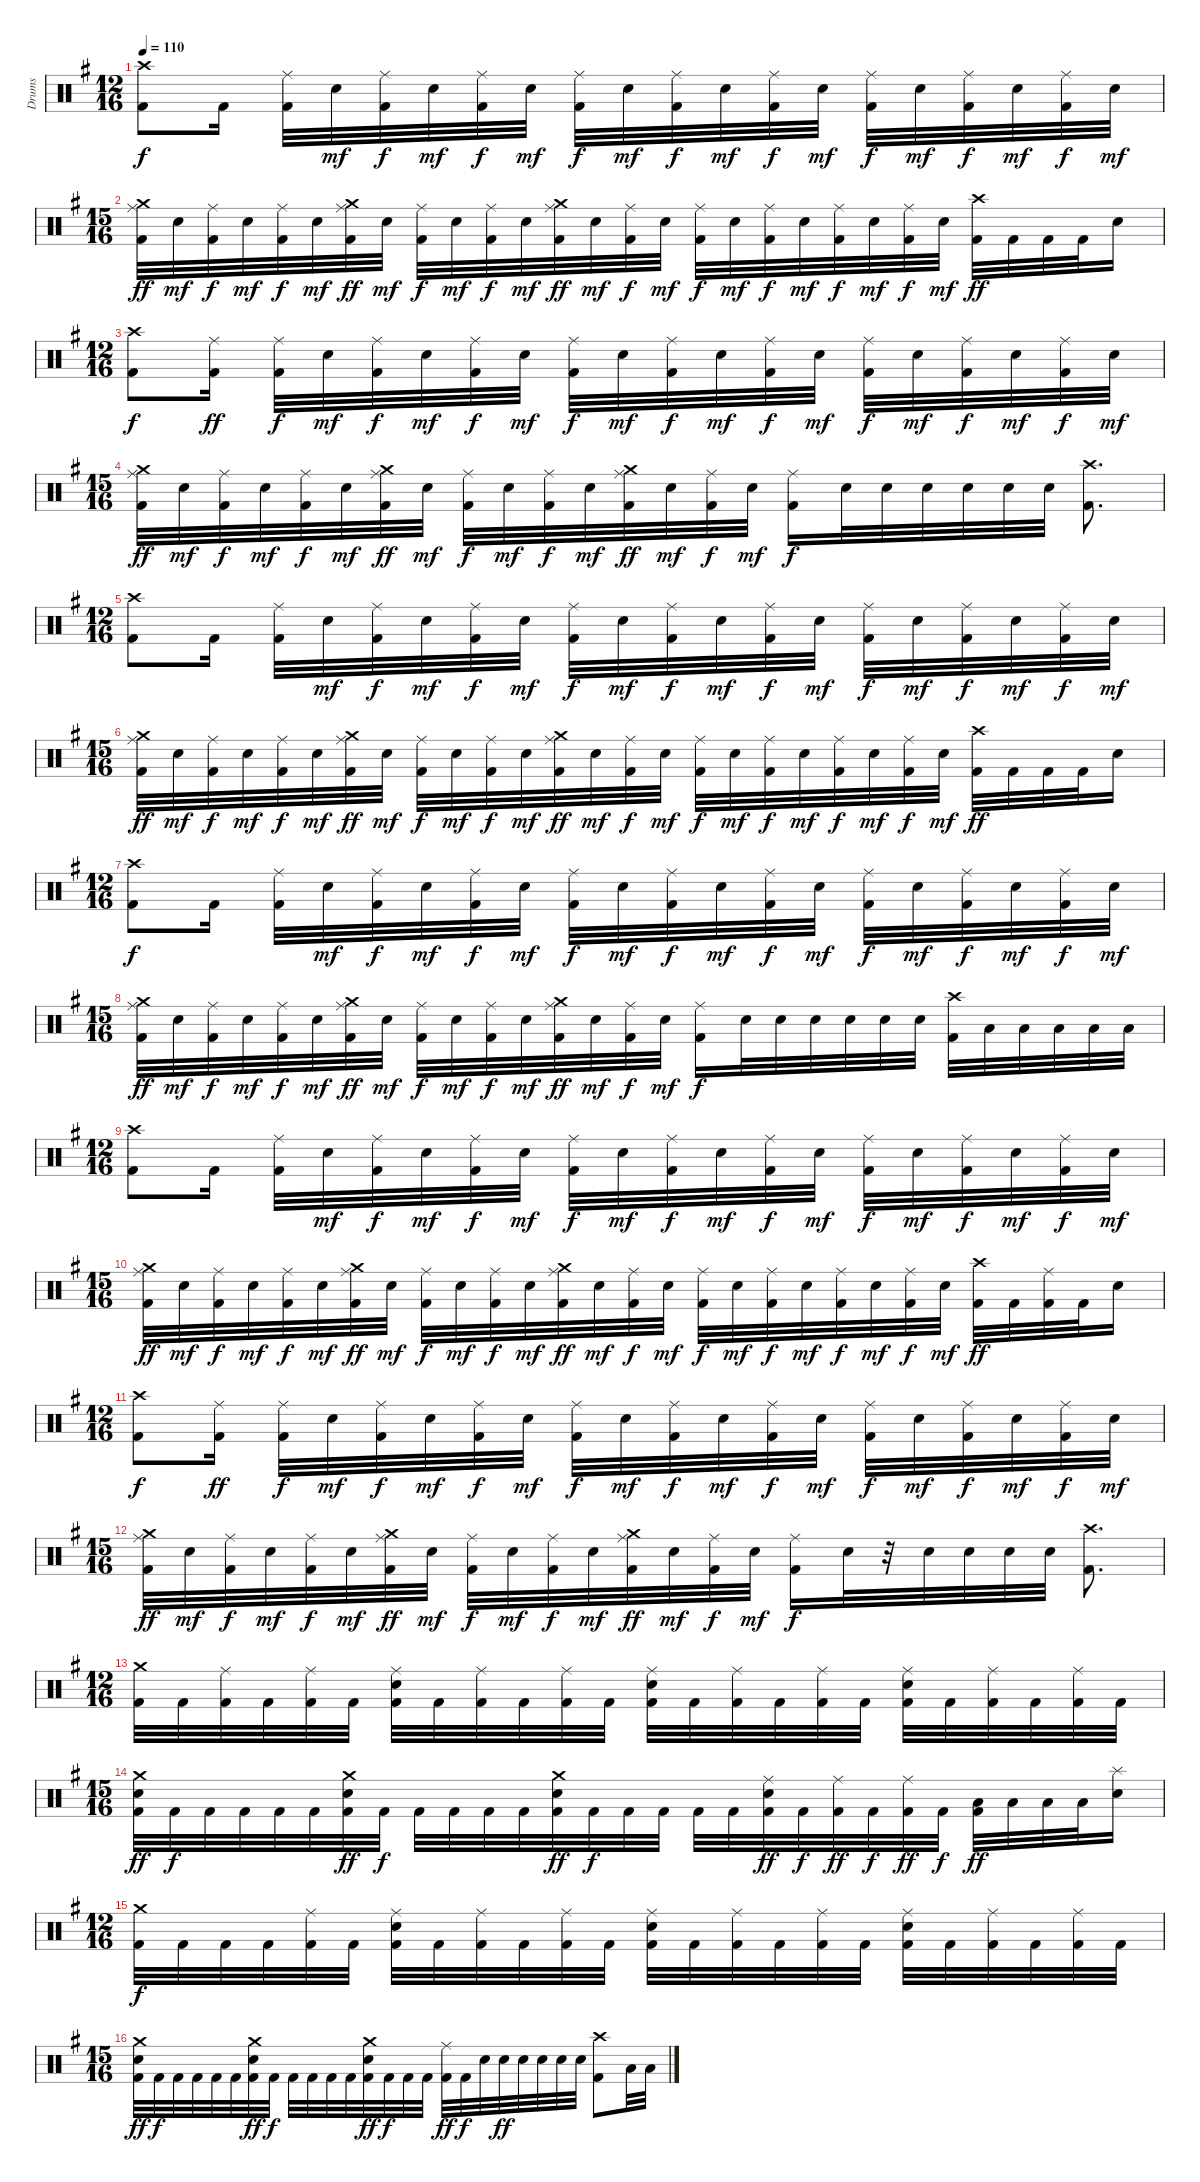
\track ("Drums" "Drums") {instrument percussion}
\staff {score}
\articulation defaults
\ts (12 16)
\tempo 110
\clef neutral
\ks eminor
("Crash high (hit)" "Kick (hit) 2").8{dy f} "Kick (hit) 2".16 ("Ride (middle)" "Kick (hit) 2").32 "Snare (hit) 2".32{dy mf} ("Ride (middle)" "Kick (hit) 2").32{dy f} "Snare (hit) 2".32{dy mf} ("Ride (middle)" "Kick (hit) 2").32{dy f} "Snare (hit) 2".32{dy mf} ("Ride (middle)" "Kick (hit) 2").32{dy f} "Snare (hit) 2".32{dy mf} ("Ride (middle)" "Kick (hit) 2").32{dy f} "Snare (hit) 2".32{dy mf} ("Ride (middle)" "Kick (hit) 2").32{dy f} "Snare (hit) 2".32{dy mf} ("Ride (middle)" "Kick (hit) 2").32{dy f} "Snare (hit) 2".32{dy mf} ("Ride (middle)" "Kick (hit) 2").32{dy f} "Snare (hit) 2".32{dy mf} ("Ride (middle)" "Kick (hit) 2").32{dy f} "Snare (hit) 2".32{dy mf} |
\ts (15 16)
("Crash medium (hit)" "Ride (middle)" "Kick (hit) 2").32{dy ff} "Snare (hit) 2".32{dy mf} ("Ride (middle)" "Kick (hit) 2").32{dy f} "Snare (hit) 2".32{dy mf} ("Ride (middle)" "Kick (hit) 2").32{dy f} "Snare (hit) 2".32{dy mf} ("Crash medium (hit)" "Ride (middle)" "Kick (hit) 2").32{dy ff} "Snare (hit) 2".32{dy mf} ("Ride (middle)" "Kick (hit) 2").32{dy f} "Snare (hit) 2".32{dy mf} ("Ride (middle)" "Kick (hit) 2").32{dy f} "Snare (hit) 2".32{dy mf} ("Crash medium (hit)" "Ride (middle)" "Kick (hit) 2").32{dy ff} "Snare (hit) 2".32{dy mf} ("Ride (middle)" "Kick (hit) 2").32{dy f} "Snare (hit) 2".32{dy mf} ("Ride (middle)" "Kick (hit) 2").32{dy f} "Snare (hit) 2".32{dy mf} ("Ride (middle)" "Kick (hit) 2").32{dy f} "Snare (hit) 2".32{dy mf} ("Ride (middle)" "Kick (hit) 2").32{dy f} "Snare (hit) 2".32{dy mf} ("Ride (middle)" "Kick (hit) 2").32{dy f} "Snare (hit) 2".32{dy mf} ("Crash high (hit)" "Kick (hit) 2").32{dy ff} "Kick (hit) 2".32 "Kick (hit) 2".32 "Kick (hit) 2".32 "Electric Snare (hit)".16 |
\ts (12 16)
("Crash high (hit)" "Kick (hit) 2").8{dy f} ("Ride (middle)" "Kick (hit) 2").16{dy ff} ("Ride (middle)" "Kick (hit) 2").32{dy f} "Snare (hit) 2".32{dy mf} ("Ride (middle)" "Kick (hit) 2").32{dy f} "Snare (hit) 2".32{dy mf} ("Ride (middle)" "Kick (hit) 2").32{dy f} "Snare (hit) 2".32{dy mf} ("Ride (middle)" "Kick (hit) 2").32{dy f} "Snare (hit) 2".32{dy mf} ("Ride (middle)" "Kick (hit) 2").32{dy f} "Snare (hit) 2".32{dy mf} ("Ride (middle)" "Kick (hit) 2").32{dy f} "Snare (hit) 2".32{dy mf} ("Ride (middle)" "Kick (hit) 2").32{dy f} "Snare (hit) 2".32{dy mf} ("Ride (middle)" "Kick (hit) 2").32{dy f} "Snare (hit) 2".32{dy mf} ("Ride (middle)" "Kick (hit) 2").32{dy f} "Snare (hit) 2".32{dy mf} |
\ts (15 16)
("Crash medium (hit)" "Ride (middle)" "Kick (hit) 2").32{dy ff} "Snare (hit) 2".32{dy mf} ("Ride (middle)" "Kick (hit) 2").32{dy f} "Snare (hit) 2".32{dy mf} ("Ride (middle)" "Kick (hit) 2").32{dy f} "Snare (hit) 2".32{dy mf} ("Crash medium (hit)" "Ride (middle)" "Kick (hit) 2").32{dy ff} "Snare (hit) 2".32{dy mf} ("Ride (middle)" "Kick (hit) 2").32{dy f} "Snare (hit) 2".32{dy mf} ("Ride (middle)" "Kick (hit) 2").32{dy f} "Snare (hit) 2".32{dy mf} ("Crash medium (hit)" "Ride (middle)" "Kick (hit) 2").32{dy ff} "Snare (hit) 2".32{dy mf} ("Ride (middle)" "Kick (hit) 2").32{dy f} "Snare (hit) 2".32{dy mf} ("Ride (middle)" "Kick (hit) 2").16{dy f} "Snare (hit) 2".32 "Snare (hit) 2".32 "Snare (hit) 2".32 "Snare (hit) 2".32 "Snare (hit) 2".32 "Snare (hit) 2".32 ("Crash high (hit)" "Kick (hit) 2").8{d} |
\ts (12 16)
("Crash high (hit)" "Kick (hit) 2").8 "Kick (hit) 2".16 ("Ride (middle)" "Kick (hit) 2").32 "Snare (hit) 2".32{dy mf} ("Ride (middle)" "Kick (hit) 2").32{dy f} "Snare (hit) 2".32{dy mf} ("Ride (middle)" "Kick (hit) 2").32{dy f} "Snare (hit) 2".32{dy mf} ("Ride (middle)" "Kick (hit) 2").32{dy f} "Snare (hit) 2".32{dy mf} ("Ride (middle)" "Kick (hit) 2").32{dy f} "Snare (hit) 2".32{dy mf} ("Ride (middle)" "Kick (hit) 2").32{dy f} "Snare (hit) 2".32{dy mf} ("Ride (middle)" "Kick (hit) 2").32{dy f} "Snare (hit) 2".32{dy mf} ("Ride (middle)" "Kick (hit) 2").32{dy f} "Snare (hit) 2".32{dy mf} ("Ride (middle)" "Kick (hit) 2").32{dy f} "Snare (hit) 2".32{dy mf} |
\ts (15 16)
("Crash medium (hit)" "Ride (middle)" "Kick (hit) 2").32{dy ff} "Snare (hit) 2".32{dy mf} ("Ride (middle)" "Kick (hit) 2").32{dy f} "Snare (hit) 2".32{dy mf} ("Ride (middle)" "Kick (hit) 2").32{dy f} "Snare (hit) 2".32{dy mf} ("Crash medium (hit)" "Ride (middle)" "Kick (hit) 2").32{dy ff} "Snare (hit) 2".32{dy mf} ("Ride (middle)" "Kick (hit) 2").32{dy f} "Snare (hit) 2".32{dy mf} ("Ride (middle)" "Kick (hit) 2").32{dy f} "Snare (hit) 2".32{dy mf} ("Crash medium (hit)" "Ride (middle)" "Kick (hit) 2").32{dy ff} "Snare (hit) 2".32{dy mf} ("Ride (middle)" "Kick (hit) 2").32{dy f} "Snare (hit) 2".32{dy mf} ("Ride (middle)" "Kick (hit) 2").32{dy f} "Snare (hit) 2".32{dy mf} ("Ride (middle)" "Kick (hit) 2").32{dy f} "Snare (hit) 2".32{dy mf} ("Ride (middle)" "Kick (hit) 2").32{dy f} "Snare (hit) 2".32{dy mf} ("Ride (middle)" "Kick (hit) 2").32{dy f} "Snare (hit) 2".32{dy mf} ("Crash high (hit)" "Kick (hit) 2").32{dy ff} "Kick (hit) 2".32 "Kick (hit) 2".32 "Kick (hit) 2".32 "Electric Snare (hit)".16 |
\ts (12 16)
("Crash high (hit)" "Kick (hit) 2").8{dy f} "Kick (hit) 2".16 ("Ride (middle)" "Kick (hit) 2").32 "Snare (hit) 2".32{dy mf} ("Ride (middle)" "Kick (hit) 2").32{dy f} "Snare (hit) 2".32{dy mf} ("Ride (middle)" "Kick (hit) 2").32{dy f} "Snare (hit) 2".32{dy mf} ("Ride (middle)" "Kick (hit) 2").32{dy f} "Snare (hit) 2".32{dy mf} ("Ride (middle)" "Kick (hit) 2").32{dy f} "Snare (hit) 2".32{dy mf} ("Ride (middle)" "Kick (hit) 2").32{dy f} "Snare (hit) 2".32{dy mf} ("Ride (middle)" "Kick (hit) 2").32{dy f} "Snare (hit) 2".32{dy mf} ("Ride (middle)" "Kick (hit) 2").32{dy f} "Snare (hit) 2".32{dy mf} ("Ride (middle)" "Kick (hit) 2").32{dy f} "Snare (hit) 2".32{dy mf} |
\ts (15 16)
("Crash medium (hit)" "Ride (middle)" "Kick (hit) 2").32{dy ff} "Snare (hit) 2".32{dy mf} ("Ride (middle)" "Kick (hit) 2").32{dy f} "Snare (hit) 2".32{dy mf} ("Ride (middle)" "Kick (hit) 2").32{dy f} "Snare (hit) 2".32{dy mf} ("Crash medium (hit)" "Ride (middle)" "Kick (hit) 2").32{dy ff} "Snare (hit) 2".32{dy mf} ("Ride (middle)" "Kick (hit) 2").32{dy f} "Snare (hit) 2".32{dy mf} ("Ride (middle)" "Kick (hit) 2").32{dy f} "Snare (hit) 2".32{dy mf} ("Crash medium (hit)" "Ride (middle)" "Kick (hit) 2").32{dy ff} "Snare (hit) 2".32{dy mf} ("Ride (middle)" "Kick (hit) 2").32{dy f} "Snare (hit) 2".32{dy mf} ("Ride (middle)" "Kick (hit) 2").16{dy f} "Snare (hit) 2".32 "Snare (hit) 2".32 "Snare (hit) 2".32 "Snare (hit) 2".32 "Snare (hit) 2".32 "Snare (hit) 2".32 ("Crash high (hit)" "Kick (hit) 2").32 "Low Floor Tom (hit)".32 "Low Floor Tom (hit)".32 "Low Floor Tom (hit)".32 "Low Floor Tom (hit)".32 "Low Floor Tom (hit)".32 |
\ts (12 16)
("Crash high (hit)" "Kick (hit) 2").8 "Kick (hit) 2".16 ("Ride (middle)" "Kick (hit) 2").32 "Snare (hit) 2".32{dy mf} ("Ride (middle)" "Kick (hit) 2").32{dy f} "Snare (hit) 2".32{dy mf} ("Ride (middle)" "Kick (hit) 2").32{dy f} "Snare (hit) 2".32{dy mf} ("Ride (middle)" "Kick (hit) 2").32{dy f} "Snare (hit) 2".32{dy mf} ("Ride (middle)" "Kick (hit) 2").32{dy f} "Snare (hit) 2".32{dy mf} ("Ride (middle)" "Kick (hit) 2").32{dy f} "Snare (hit) 2".32{dy mf} ("Ride (middle)" "Kick (hit) 2").32{dy f} "Snare (hit) 2".32{dy mf} ("Ride (middle)" "Kick (hit) 2").32{dy f} "Snare (hit) 2".32{dy mf} ("Ride (middle)" "Kick (hit) 2").32{dy f} "Snare (hit) 2".32{dy mf} |
\ts (15 16)
("Crash medium (hit)" "Ride (middle)" "Kick (hit) 2").32{dy ff} "Snare (hit) 2".32{dy mf} ("Ride (middle)" "Kick (hit) 2").32{dy f} "Snare (hit) 2".32{dy mf} ("Ride (middle)" "Kick (hit) 2").32{dy f} "Snare (hit) 2".32{dy mf} ("Crash medium (hit)" "Ride (middle)" "Kick (hit) 2").32{dy ff} "Snare (hit) 2".32{dy mf} ("Ride (middle)" "Kick (hit) 2").32{dy f} "Snare (hit) 2".32{dy mf} ("Ride (middle)" "Kick (hit) 2").32{dy f} "Snare (hit) 2".32{dy mf} ("Crash medium (hit)" "Ride (middle)" "Kick (hit) 2").32{dy ff} "Snare (hit) 2".32{dy mf} ("Ride (middle)" "Kick (hit) 2").32{dy f} "Snare (hit) 2".32{dy mf} ("Ride (middle)" "Kick (hit) 2").32{dy f} "Snare (hit) 2".32{dy mf} ("Ride (middle)" "Kick (hit) 2").32{dy f} "Snare (hit) 2".32{dy mf} ("Ride (middle)" "Kick (hit) 2").32{dy f} "Snare (hit) 2".32{dy mf} ("Ride (middle)" "Kick (hit) 2").32{dy f} "Snare (hit) 2".32{dy mf} ("Crash high (hit)" "Kick (hit) 2").32{dy ff} "Kick (hit) 2".32 ("Ride (middle)" "Kick (hit) 2").32 "Kick (hit) 2".32 "Electric Snare (hit)".16 |
\ts (12 16)
("Crash high (hit)" "Kick (hit) 2").8{dy f} ("Ride (middle)" "Kick (hit) 2").16{dy ff} ("Ride (middle)" "Kick (hit) 2").32{dy f} "Snare (hit) 2".32{dy mf} ("Ride (middle)" "Kick (hit) 2").32{dy f} "Snare (hit) 2".32{dy mf} ("Ride (middle)" "Kick (hit) 2").32{dy f} "Snare (hit) 2".32{dy mf} ("Ride (middle)" "Kick (hit) 2").32{dy f} "Snare (hit) 2".32{dy mf} ("Ride (middle)" "Kick (hit) 2").32{dy f} "Snare (hit) 2".32{dy mf} ("Ride (middle)" "Kick (hit) 2").32{dy f} "Snare (hit) 2".32{dy mf} ("Ride (middle)" "Kick (hit) 2").32{dy f} "Snare (hit) 2".32{dy mf} ("Ride (middle)" "Kick (hit) 2").32{dy f} "Snare (hit) 2".32{dy mf} ("Ride (middle)" "Kick (hit) 2").32{dy f} "Snare (hit) 2".32{dy mf} |
\ts (15 16)
("Crash medium (hit)" "Ride (middle)" "Kick (hit) 2").32{dy ff} "Snare (hit) 2".32{dy mf} ("Ride (middle)" "Kick (hit) 2").32{dy f} "Snare (hit) 2".32{dy mf} ("Ride (middle)" "Kick (hit) 2").32{dy f} "Snare (hit) 2".32{dy mf} ("Crash medium (hit)" "Ride (middle)" "Kick (hit) 2").32{dy ff} "Snare (hit) 2".32{dy mf} ("Ride (middle)" "Kick (hit) 2").32{dy f} "Snare (hit) 2".32{dy mf} ("Ride (middle)" "Kick (hit) 2").32{dy f} "Snare (hit) 2".32{dy mf} ("Crash medium (hit)" "Ride (middle)" "Kick (hit) 2").32{dy ff} "Snare (hit) 2".32{dy mf} ("Ride (middle)" "Kick (hit) 2").32{dy f} "Snare (hit) 2".32{dy mf} ("Ride (middle)" "Kick (hit) 2").16{dy f} "Snare (hit) 2".32 r.32 "Snare (hit) 2".32 "Snare (hit) 2".32 "Snare (hit) 2".32 "Snare (hit) 2".32 ("Crash high (hit)" "Kick (hit) 2").8{d} |
\ts (12 16)
("Crash medium (hit)" "Kick (hit) 2").32 "Kick (hit) 2".32 ("Ride (middle)" "Kick (hit) 2").32 "Kick (hit) 2".32 ("Ride (middle)" "Kick (hit) 2").32 "Kick (hit) 2".32 ("Ride (middle)" "Snare (hit) 2" "Kick (hit) 2").32 "Kick (hit) 2".32 ("Ride (middle)" "Kick (hit) 2").32 "Kick (hit) 2".32 ("Ride (middle)" "Kick (hit) 2").32 "Kick (hit) 2".32 ("Ride (middle)" "Snare (hit) 2" "Kick (hit) 2").32 "Kick (hit) 2".32 ("Ride (middle)" "Kick (hit) 2").32 "Kick (hit) 2".32 ("Ride (middle)" "Kick (hit) 2").32 "Kick (hit) 2".32 ("Ride (middle)" "Snare (hit) 2" "Kick (hit) 2").32 "Kick (hit) 2".32 ("Ride (middle)" "Kick (hit) 2").32 "Kick (hit) 2".32 ("Ride (middle)" "Kick (hit) 2").32 "Kick (hit) 2".32 |
\ts (15 16)
("Crash medium (hit)" "Snare (hit) 2" "Kick (hit) 2").32{dy ff} "Kick (hit) 2".32{dy f} "Kick (hit) 2".32 "Kick (hit) 2".32 "Kick (hit) 2".32 "Kick (hit) 2".32 ("Crash medium (hit)" "Snare (hit) 2" "Kick (hit) 2").32{dy ff} "Kick (hit) 2".32{dy f} "Kick (hit) 2".32 "Kick (hit) 2".32 "Kick (hit) 2".32 "Kick (hit) 2".32 ("Crash medium (hit)" "Snare (hit) 2" "Kick (hit) 2").32{dy ff} "Kick (hit) 2".32{dy f} "Kick (hit) 2".32 "Kick (hit) 2".32 "Kick (hit) 2".32 "Kick (hit) 2".32 ("Ride (middle)" "Snare (hit) 2" "Kick (hit) 2").32{dy ff} "Kick (hit) 2".32{dy f} ("Ride (middle)" "Kick (hit) 2").32{dy ff} "Kick (hit) 2".32{dy f} ("Ride (middle)" "Kick (hit) 2").32{dy ff} "Kick (hit) 2".32{dy f} ("Low Floor Tom (hit)" "Kick (hit) 2").32{dy ff} "Low Floor Tom (hit)".32 "Low Floor Tom (hit)".32 "Low Floor Tom (hit)".32 ("Splash (hit)" "Snare (hit) 2").16 |
\ts (12 16)
("Crash medium (hit)" "Kick (hit) 2").32{dy f} "Kick (hit) 2".32 "Kick (hit) 2".32 "Kick (hit) 2".32 ("Ride (middle)" "Kick (hit) 2").32 "Kick (hit) 2".32 ("Ride (middle)" "Snare (hit) 2" "Kick (hit) 2").32 "Kick (hit) 2".32 ("Ride (middle)" "Kick (hit) 2").32 "Kick (hit) 2".32 ("Ride (middle)" "Kick (hit) 2").32 "Kick (hit) 2".32 ("Ride (middle)" "Snare (hit) 2" "Kick (hit) 2").32 "Kick (hit) 2".32 ("Ride (middle)" "Kick (hit) 2").32 "Kick (hit) 2".32 ("Ride (middle)" "Kick (hit) 2").32 "Kick (hit) 2".32 ("Ride (middle)" "Snare (hit) 2" "Kick (hit) 2").32 "Kick (hit) 2".32 ("Ride (middle)" "Kick (hit) 2").32 "Kick (hit) 2".32 ("Ride (middle)" "Kick (hit) 2").32 "Kick (hit) 2".32 |
\ts (15 16)
("Crash medium (hit)" "Snare (hit) 2" "Kick (hit) 2").32{dy ff} "Kick (hit) 2".32{dy f} "Kick (hit) 2".32 "Kick (hit) 2".32 "Kick (hit) 2".32 "Kick (hit) 2".32 ("Crash medium (hit)" "Snare (hit) 2" "Kick (hit) 2").32{dy ff} "Kick (hit) 2".32{dy f} "Kick (hit) 2".32 "Kick (hit) 2".32 "Kick (hit) 2".32 "Kick (hit) 2".32 ("Crash medium (hit)" "Snare (hit) 2" "Kick (hit) 2").32{dy ff} "Kick (hit) 2".32{dy f} "Kick (hit) 2".32 "Kick (hit) 2".32 ("Ride (middle)" "Kick (hit) 2").32{dy ff} "Kick (hit) 2".32{dy f} "Snare (hit) 2".32 "Snare (hit) 2".32{dy ff} "Snare (hit) 2".32 "Snare (hit) 2".32 "Snare (hit) 2".32 "Snare (hit) 2".32 ("Crash high (hit)" "Kick (hit) 2").8 "Low Floor Tom (hit)".32 "Low Floor Tom (hit)".32
